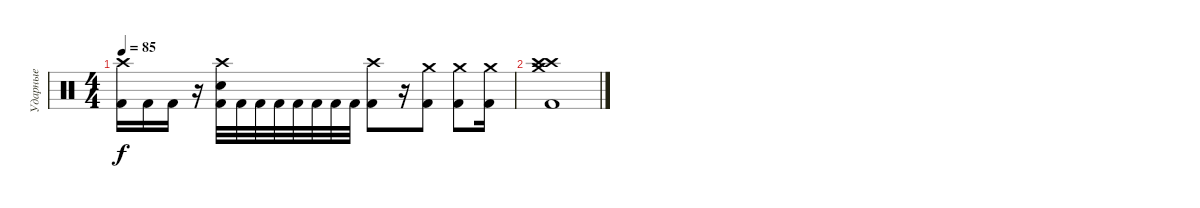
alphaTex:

\track ("Ударные" "Ударные") {instrument percussion}
\staff {score}
\articulation defaults
\ts (4 4)
\tempo 85
\clef neutral
\ks c
("Crash high (hit)" "Kick (hit) 2").16{dy f} "Kick (hit) 2".16 "Kick (hit) 2".16 r.16 ("Crash high (hit)" "Electric Snare (hit)" "Kick (hit) 2").32 "Kick (hit) 2".32 "Kick (hit) 2".32 "Kick (hit) 2".32 "Kick (hit) 2".32 "Kick (hit) 2".32 "Kick (hit) 2".32 "Kick (hit) 2".32 ("Crash high (hit)" "Kick (hit) 2").8 r.16 ("Crash medium (hit)" "Kick (hit) 2").8 ("Crash medium (hit)" "Kick (hit) 2").8 ("Crash medium (hit)" "Kick (hit) 2").16 |
("Crash high (hit)" "Crash medium (hit)" "Crash high (hit)" "Kick (hit) 2").1
